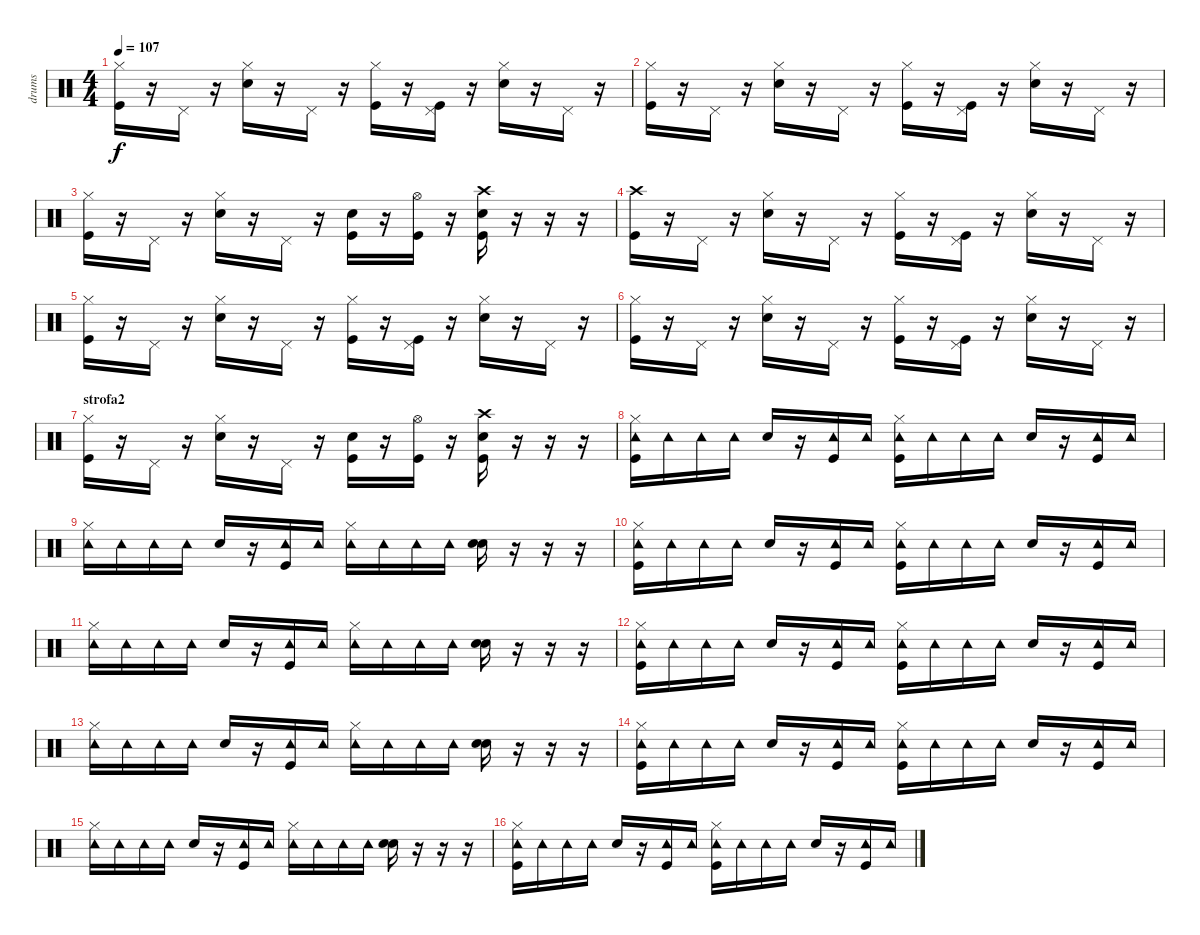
\track ("drums" "drums") {instrument percussion}
\staff {score}
\articulation defaults
\ts (4 4)
\tempo 107
\clef neutral
\ks c
("Hi-Hat (closed)" "Kick (hit)").16{dy f} r.16 "Pedal Hi-Hat (hit)".16 r.16 ("Hi-Hat (closed)" "Snare (hit) 2").16 r.16 "Pedal Hi-Hat (hit)".16 r.16 ("Hi-Hat (closed)" "Kick (hit)").16 r.16 ("Pedal Hi-Hat (hit)" "Kick (hit)").16 r.16 ("Hi-Hat (closed)" "Snare (hit) 2").16 r.16 "Pedal Hi-Hat (hit)".16 r.16 |
("Hi-Hat (closed)" "Kick (hit)").16 r.16 "Pedal Hi-Hat (hit)".16 r.16 ("Hi-Hat (closed)" "Snare (hit) 2").16 r.16 "Pedal Hi-Hat (hit)".16 r.16 ("Hi-Hat (closed)" "Kick (hit)").16 r.16 ("Pedal Hi-Hat (hit)" "Kick (hit)").16 r.16 ("Hi-Hat (closed)" "Snare (hit) 2").16 r.16 "Pedal Hi-Hat (hit)".16 r.16 |
("Hi-Hat (closed)" "Kick (hit)").16 r.16 "Pedal Hi-Hat (hit)".16 r.16 ("Hi-Hat (closed)" "Snare (hit) 2").16 r.16 "Pedal Hi-Hat (hit)".16 r.16 ("Snare (hit) 2" "Kick (hit)").16 r.16 ("Hi-Hat (open)" "Kick (hit)").16 r.16 ("Crash high (hit)" "Snare (hit) 2" "Kick (hit)").16 r.16 r.16 r.16 |
("Crash high (hit)" "Kick (hit)").16 r.16 "Pedal Hi-Hat (hit)".16 r.16 ("Hi-Hat (closed)" "Snare (hit) 2").16 r.16 "Pedal Hi-Hat (hit)".16 r.16 ("Hi-Hat (closed)" "Kick (hit)").16 r.16 ("Pedal Hi-Hat (hit)" "Kick (hit)").16 r.16 ("Hi-Hat (closed)" "Snare (hit) 2").16 r.16 "Pedal Hi-Hat (hit)".16 r.16 |
("Hi-Hat (closed)" "Kick (hit)").16 r.16 "Pedal Hi-Hat (hit)".16 r.16 ("Hi-Hat (closed)" "Snare (hit) 2").16 r.16 "Pedal Hi-Hat (hit)".16 r.16 ("Hi-Hat (closed)" "Kick (hit)").16 r.16 ("Pedal Hi-Hat (hit)" "Kick (hit)").16 r.16 ("Hi-Hat (closed)" "Snare (hit) 2").16 r.16 "Pedal Hi-Hat (hit)".16 r.16 |
("Hi-Hat (closed)" "Kick (hit)").16 r.16 "Pedal Hi-Hat (hit)".16 r.16 ("Hi-Hat (closed)" "Snare (hit) 2").16 r.16 "Pedal Hi-Hat (hit)".16 r.16 ("Hi-Hat (closed)" "Kick (hit)").16 r.16 ("Pedal Hi-Hat (hit)" "Kick (hit)").16 r.16 ("Hi-Hat (closed)" "Snare (hit) 2").16 r.16 "Pedal Hi-Hat (hit)".16 r.16 |
\section ("" "strofa2")
("Hi-Hat (closed)" "Kick (hit)").16 r.16 "Pedal Hi-Hat (hit)".16 r.16 ("Hi-Hat (closed)" "Snare (hit) 2").16 r.16 "Pedal Hi-Hat (hit)".16 r.16 ("Snare (hit) 2" "Kick (hit)").16 r.16 ("Hi-Hat (open)" "Kick (hit)").16 r.16 ("Crash high (hit)" "Snare (hit) 2" "Kick (hit)").16 r.16 r.16 r.16 |
("Hi-Hat (closed)" "Tambourine (hit)" "Kick (hit)").16 "Tambourine (hit)".16 "Tambourine (hit)".16 "Tambourine (hit)".16 "Snare (hit) 2".16 r.16 ("Tambourine (hit)" "Kick (hit)").16 "Tambourine (hit)".16 ("Hi-Hat (closed)" "Tambourine (hit)" "Kick (hit)").16 "Tambourine (hit)".16 "Tambourine (hit)".16 "Tambourine (hit)".16 "Snare (hit) 2".16 r.16 ("Tambourine (hit)" "Kick (hit)").16 "Tambourine (hit)".16 |
("Hi-Hat (closed)" "Tambourine (hit)").16 "Tambourine (hit)".16 "Tambourine (hit)".16 "Tambourine (hit)".16 "Snare (hit) 2".16 r.16 ("Tambourine (hit)" "Kick (hit)").16 "Tambourine (hit)".16 ("Hi-Hat (closed)" "Tambourine (hit)").16 "Tambourine (hit)".16 "Tambourine (hit)".16 "Tambourine (hit)".16 ("Snare (hit) 2" "Electric Snare (hit)").16 r.16 r.16 r.16 |
("Hi-Hat (closed)" "Tambourine (hit)" "Kick (hit)").16 "Tambourine (hit)".16 "Tambourine (hit)".16 "Tambourine (hit)".16 "Snare (hit) 2".16 r.16 ("Tambourine (hit)" "Kick (hit)").16 "Tambourine (hit)".16 ("Hi-Hat (closed)" "Tambourine (hit)" "Kick (hit)").16 "Tambourine (hit)".16 "Tambourine (hit)".16 "Tambourine (hit)".16 "Snare (hit) 2".16 r.16 ("Tambourine (hit)" "Kick (hit)").16 "Tambourine (hit)".16 |
("Hi-Hat (closed)" "Tambourine (hit)").16 "Tambourine (hit)".16 "Tambourine (hit)".16 "Tambourine (hit)".16 "Snare (hit) 2".16 r.16 ("Tambourine (hit)" "Kick (hit)").16 "Tambourine (hit)".16 ("Hi-Hat (closed)" "Tambourine (hit)").16 "Tambourine (hit)".16 "Tambourine (hit)".16 "Tambourine (hit)".16 ("Snare (hit) 2" "Electric Snare (hit)").16 r.16 r.16 r.16 |
("Hi-Hat (closed)" "Tambourine (hit)" "Kick (hit)").16 "Tambourine (hit)".16 "Tambourine (hit)".16 "Tambourine (hit)".16 "Snare (hit) 2".16 r.16 ("Tambourine (hit)" "Kick (hit)").16 "Tambourine (hit)".16 ("Hi-Hat (closed)" "Tambourine (hit)" "Kick (hit)").16 "Tambourine (hit)".16 "Tambourine (hit)".16 "Tambourine (hit)".16 "Snare (hit) 2".16 r.16 ("Tambourine (hit)" "Kick (hit)").16 "Tambourine (hit)".16 |
("Hi-Hat (closed)" "Tambourine (hit)").16 "Tambourine (hit)".16 "Tambourine (hit)".16 "Tambourine (hit)".16 "Snare (hit) 2".16 r.16 ("Tambourine (hit)" "Kick (hit)").16 "Tambourine (hit)".16 ("Hi-Hat (closed)" "Tambourine (hit)").16 "Tambourine (hit)".16 "Tambourine (hit)".16 "Tambourine (hit)".16 ("Snare (hit) 2" "Electric Snare (hit)").16 r.16 r.16 r.16 |
("Hi-Hat (closed)" "Tambourine (hit)" "Kick (hit)").16 "Tambourine (hit)".16 "Tambourine (hit)".16 "Tambourine (hit)".16 "Snare (hit) 2".16 r.16 ("Tambourine (hit)" "Kick (hit)").16 "Tambourine (hit)".16 ("Hi-Hat (closed)" "Tambourine (hit)" "Kick (hit)").16 "Tambourine (hit)".16 "Tambourine (hit)".16 "Tambourine (hit)".16 "Snare (hit) 2".16 r.16 ("Tambourine (hit)" "Kick (hit)").16 "Tambourine (hit)".16 |
("Hi-Hat (closed)" "Tambourine (hit)").16 "Tambourine (hit)".16 "Tambourine (hit)".16 "Tambourine (hit)".16 "Snare (hit) 2".16 r.16 ("Tambourine (hit)" "Kick (hit)").16 "Tambourine (hit)".16 ("Hi-Hat (closed)" "Tambourine (hit)").16 "Tambourine (hit)".16 "Tambourine (hit)".16 "Tambourine (hit)".16 ("Snare (hit) 2" "Electric Snare (hit)").16 r.16 r.16 r.16 |
("Hi-Hat (closed)" "Tambourine (hit)" "Kick (hit)").16 "Tambourine (hit)".16 "Tambourine (hit)".16 "Tambourine (hit)".16 "Snare (hit) 2".16 r.16 ("Tambourine (hit)" "Kick (hit)").16 "Tambourine (hit)".16 ("Hi-Hat (closed)" "Tambourine (hit)" "Kick (hit)").16 "Tambourine (hit)".16 "Tambourine (hit)".16 "Tambourine (hit)".16 "Snare (hit) 2".16 r.16 ("Tambourine (hit)" "Kick (hit)").16 "Tambourine (hit)".16
